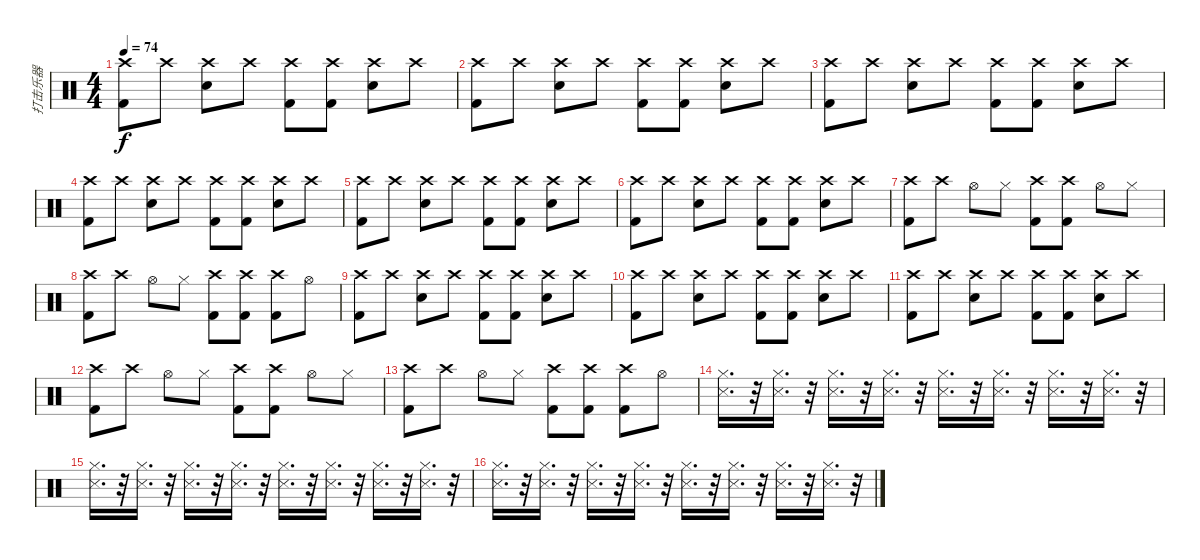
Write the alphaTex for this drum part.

\track ("打击乐器" "打击乐器") {instrument percussion}
\staff {score}
\articulation defaults
\ts (4 4)
\tempo 74
\clef neutral
\ks c
("Crash high (hit)" "Kick (hit) 2").8{dy f} "Crash high (hit)".8 ("Crash high (hit)" "Snare (hit) 2").8 "Crash high (hit)".8 ("Crash high (hit)" "Kick (hit) 2").8 ("Crash high (hit)" "Kick (hit) 2").8 ("Crash high (hit)" "Snare (hit) 2").8 "Crash high (hit)".8 |
("Crash high (hit)" "Kick (hit) 2").8 "Crash high (hit)".8 ("Crash high (hit)" "Snare (hit) 2").8 "Crash high (hit)".8 ("Crash high (hit)" "Kick (hit) 2").8 ("Crash high (hit)" "Kick (hit) 2").8 ("Crash high (hit)" "Snare (hit) 2").8 "Crash high (hit)".8 |
("Crash high (hit)" "Kick (hit) 2").8 "Crash high (hit)".8 ("Crash high (hit)" "Snare (hit) 2").8 "Crash high (hit)".8 ("Crash high (hit)" "Kick (hit) 2").8 ("Crash high (hit)" "Kick (hit) 2").8 ("Crash high (hit)" "Snare (hit) 2").8 "Crash high (hit)".8 |
("Crash high (hit)" "Kick (hit) 2").8 "Crash high (hit)".8 ("Crash high (hit)" "Snare (hit) 2").8 "Crash high (hit)".8 ("Crash high (hit)" "Kick (hit) 2").8 ("Crash high (hit)" "Kick (hit) 2").8 ("Crash high (hit)" "Snare (hit) 2").8 "Crash high (hit)".8 |
("Crash high (hit)" "Kick (hit) 2").8 "Crash high (hit)".8 ("Crash high (hit)" "Snare (hit) 2").8 "Crash high (hit)".8 ("Crash high (hit)" "Kick (hit) 2").8 ("Crash high (hit)" "Kick (hit) 2").8 ("Crash high (hit)" "Snare (hit) 2").8 "Crash high (hit)".8 |
("Crash high (hit)" "Kick (hit) 2").8 "Crash high (hit)".8 ("Crash high (hit)" "Snare (hit) 2").8 "Crash high (hit)".8 ("Crash high (hit)" "Kick (hit) 2").8 ("Crash high (hit)" "Kick (hit) 2").8 ("Crash high (hit)" "Snare (hit) 2").8 "Crash high (hit)".8 |
("Crash high (hit)" "Kick (hit) 2").8 "Crash high (hit)".8 "Hi-Hat (open)".8 "Hi-Hat (closed)".8 ("Crash high (hit)" "Kick (hit) 2").8 ("Crash high (hit)" "Kick (hit) 2").8 "Hi-Hat (open)".8 "Hi-Hat (closed)".8 |
("Crash high (hit)" "Kick (hit) 2").8 "Crash high (hit)".8 "Hi-Hat (open)".8 "Hi-Hat (closed)".8 ("Crash high (hit)" "Kick (hit) 2").8 ("Crash high (hit)" "Kick (hit) 2").8 ("Crash high (hit)" "Kick (hit) 2").8 "Hi-Hat (open)".8 |
("Crash high (hit)" "Kick (hit) 2").8 "Crash high (hit)".8 ("Crash high (hit)" "Snare (hit) 2").8 "Crash high (hit)".8 ("Crash high (hit)" "Kick (hit) 2").8 ("Crash high (hit)" "Kick (hit) 2").8 ("Crash high (hit)" "Snare (hit) 2").8 "Crash high (hit)".8 |
("Crash high (hit)" "Kick (hit) 2").8 "Crash high (hit)".8 ("Crash high (hit)" "Snare (hit) 2").8 "Crash high (hit)".8 ("Crash high (hit)" "Kick (hit) 2").8 ("Crash high (hit)" "Kick (hit) 2").8 ("Crash high (hit)" "Snare (hit) 2").8 "Crash high (hit)".8 |
("Crash high (hit)" "Kick (hit) 2").8 "Crash high (hit)".8 ("Crash high (hit)" "Snare (hit) 2").8 "Crash high (hit)".8 ("Crash high (hit)" "Kick (hit) 2").8 ("Crash high (hit)" "Kick (hit) 2").8 ("Crash high (hit)" "Snare (hit) 2").8 "Crash high (hit)".8 |
("Crash high (hit)" "Kick (hit) 2").8 "Crash high (hit)".8 "Hi-Hat (open)".8 "Hi-Hat (closed)".8 ("Crash high (hit)" "Kick (hit) 2").8 ("Crash high (hit)" "Kick (hit) 2").8 "Hi-Hat (open)".8 "Hi-Hat (closed)".8 |
("Crash high (hit)" "Kick (hit) 2").8 "Crash high (hit)".8 "Hi-Hat (open)".8 "Hi-Hat (closed)".8 ("Crash high (hit)" "Kick (hit) 2").8 ("Crash high (hit)" "Kick (hit) 2").8 ("Crash high (hit)" "Kick (hit) 2").8 "Hi-Hat (open)".8 |
("Hi-Hat (closed)" "Snare (side stick) 3").16{d} r.32 ("Hi-Hat (closed)" "Snare (side stick) 3").16{d} r.32 ("Hi-Hat (closed)" "Snare (side stick) 3").16{d} r.32 ("Hi-Hat (closed)" "Snare (side stick) 3").16{d} r.32 ("Hi-Hat (closed)" "Snare (side stick) 3").16{d} r.32 ("Hi-Hat (closed)" "Snare (side stick) 3").16{d} r.32 ("Hi-Hat (closed)" "Snare (side stick) 3").16{d} r.32 ("Hi-Hat (closed)" "Snare (side stick) 3").16{d} r.32 |
("Hi-Hat (closed)" "Snare (side stick) 3").16{d} r.32 ("Hi-Hat (closed)" "Snare (side stick) 3").16{d} r.32 ("Hi-Hat (closed)" "Snare (side stick) 3").16{d} r.32 ("Hi-Hat (closed)" "Snare (side stick) 3").16{d} r.32 ("Hi-Hat (closed)" "Snare (side stick) 3").16{d} r.32 ("Hi-Hat (closed)" "Snare (side stick) 3").16{d} r.32 ("Hi-Hat (closed)" "Snare (side stick) 3").16{d} r.32 ("Hi-Hat (closed)" "Snare (side stick) 3").16{d} r.32 |
("Hi-Hat (closed)" "Snare (side stick) 3").16{d} r.32 ("Hi-Hat (closed)" "Snare (side stick) 3").16{d} r.32 ("Hi-Hat (closed)" "Snare (side stick) 3").16{d} r.32 ("Hi-Hat (closed)" "Snare (side stick) 3").16{d} r.32 ("Hi-Hat (closed)" "Snare (side stick) 3").16{d} r.32 ("Hi-Hat (closed)" "Snare (side stick) 3").16{d} r.32 ("Hi-Hat (closed)" "Snare (side stick) 3").16{d} r.32 ("Hi-Hat (closed)" "Snare (side stick) 3").16{d} r.32
